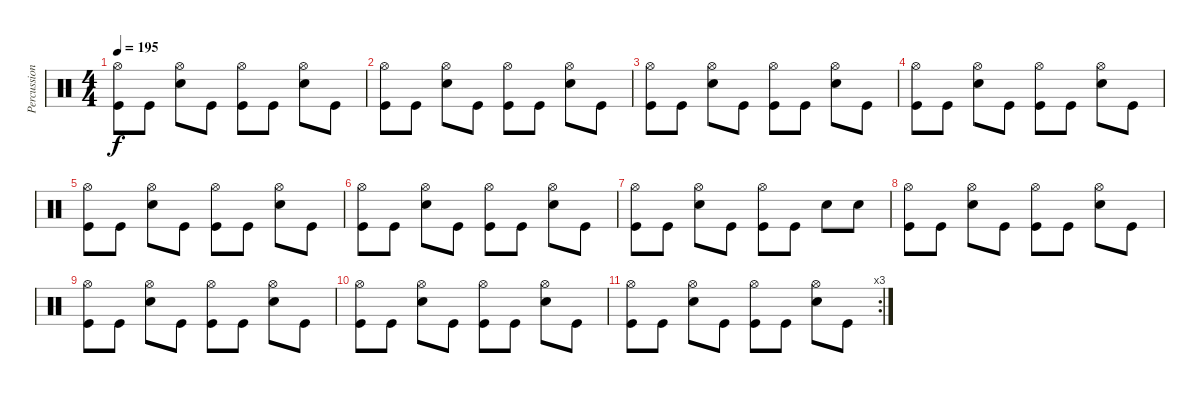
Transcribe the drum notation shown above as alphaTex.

\track ("Percussion" "Percussion") {instrument percussion}
\staff {score}
\articulation defaults
\ts (4 4)
\tempo 195
\clef neutral
\ks c
("Hi-Hat (open)" "Kick (hit)").8{dy f} "Kick (hit)".8 ("Hi-Hat (open)" "Snare (hit) 2").8 "Kick (hit)".8 ("Hi-Hat (open)" "Kick (hit)").8 "Kick (hit)".8 ("Hi-Hat (open)" "Snare (hit) 2").8 "Kick (hit)".8 |
("Hi-Hat (open)" "Kick (hit)").8 "Kick (hit)".8 ("Hi-Hat (open)" "Snare (hit) 2").8 "Kick (hit)".8 ("Hi-Hat (open)" "Kick (hit)").8 "Kick (hit)".8 ("Hi-Hat (open)" "Snare (hit) 2").8 "Kick (hit)".8 |
("Hi-Hat (open)" "Kick (hit)").8 "Kick (hit)".8 ("Hi-Hat (open)" "Snare (hit) 2").8 "Kick (hit)".8 ("Hi-Hat (open)" "Kick (hit)").8 "Kick (hit)".8 ("Hi-Hat (open)" "Snare (hit) 2").8 "Kick (hit)".8 |
("Hi-Hat (open)" "Kick (hit)").8 "Kick (hit)".8 ("Hi-Hat (open)" "Snare (hit) 2").8 "Kick (hit)".8 ("Hi-Hat (open)" "Kick (hit)").8 "Kick (hit)".8 ("Hi-Hat (open)" "Snare (hit) 2").8 "Kick (hit)".8 |
("Hi-Hat (open)" "Kick (hit)").8 "Kick (hit)".8 ("Hi-Hat (open)" "Snare (hit) 2").8 "Kick (hit)".8 ("Hi-Hat (open)" "Kick (hit)").8 "Kick (hit)".8 ("Hi-Hat (open)" "Snare (hit) 2").8 "Kick (hit)".8 |
("Hi-Hat (open)" "Kick (hit)").8 "Kick (hit)".8 ("Hi-Hat (open)" "Snare (hit) 2").8 "Kick (hit)".8 ("Hi-Hat (open)" "Kick (hit)").8 "Kick (hit)".8 ("Hi-Hat (open)" "Snare (hit) 2").8 "Kick (hit)".8 |
("Hi-Hat (open)" "Kick (hit)").8 "Kick (hit)".8 ("Hi-Hat (open)" "Snare (hit) 2").8 "Kick (hit)".8 ("Hi-Hat (open)" "Kick (hit)").8 "Kick (hit)".8 "Snare (hit) 2".8 "Snare (hit) 2".8 |
("Hi-Hat (open)" "Kick (hit)").8 "Kick (hit)".8 ("Hi-Hat (open)" "Snare (hit) 2").8 "Kick (hit)".8 ("Hi-Hat (open)" "Kick (hit)").8 "Kick (hit)".8 ("Hi-Hat (open)" "Snare (hit) 2").8 "Kick (hit)".8 |
("Hi-Hat (open)" "Kick (hit)").8 "Kick (hit)".8 ("Hi-Hat (open)" "Snare (hit) 2").8 "Kick (hit)".8 ("Hi-Hat (open)" "Kick (hit)").8 "Kick (hit)".8 ("Hi-Hat (open)" "Snare (hit) 2").8 "Kick (hit)".8 |
("Hi-Hat (open)" "Kick (hit)").8 "Kick (hit)".8 ("Hi-Hat (open)" "Snare (hit) 2").8 "Kick (hit)".8 ("Hi-Hat (open)" "Kick (hit)").8 "Kick (hit)".8 ("Hi-Hat (open)" "Snare (hit) 2").8 "Kick (hit)".8 |
\rc 3
("Hi-Hat (open)" "Kick (hit)").8 "Kick (hit)".8 ("Hi-Hat (open)" "Snare (hit) 2").8 "Kick (hit)".8 ("Hi-Hat (open)" "Kick (hit)").8 "Kick (hit)".8 ("Hi-Hat (open)" "Snare (hit) 2").8 "Kick (hit)".8
